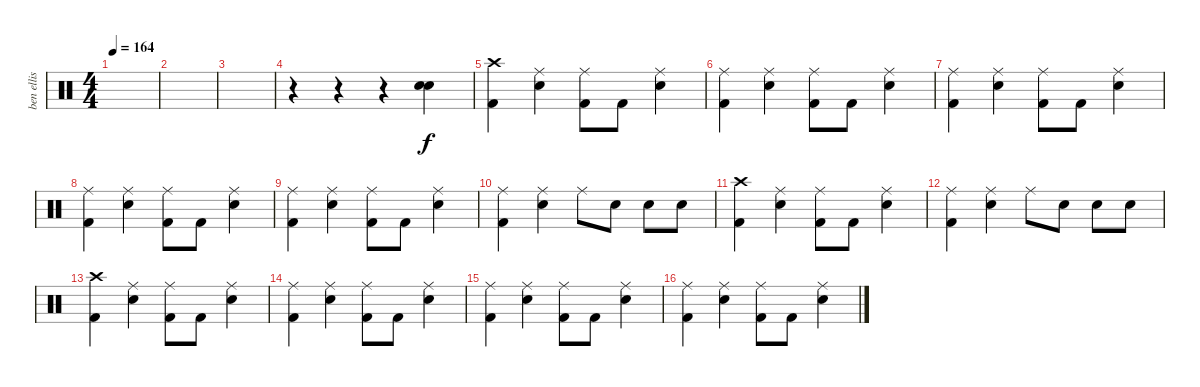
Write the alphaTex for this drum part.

\track ("ben ellis" "ben ellis") {instrument percussion}
\staff {score}
\articulation defaults
\ts (4 4)
\tempo 164
\clef neutral
\ks c
|
|
|
r.4 r.4 r.4 ("Electric Snare (hit)" "Electric Snare (hit)").4 |
("Crash high (hit)" "Kick (hit) 2").4 ("Ride (middle)" "Electric Snare (hit)").4 ("Ride (middle)" "Kick (hit) 2").8 "Kick (hit) 2".8 ("Ride (middle)" "Electric Snare (hit)").4 |
("Ride (middle)" "Kick (hit) 2").4 ("Ride (middle)" "Electric Snare (hit)").4 ("Ride (middle)" "Kick (hit) 2").8 "Kick (hit) 2".8 ("Ride (middle)" "Electric Snare (hit)").4 |
("Ride (middle)" "Kick (hit) 2").4 ("Ride (middle)" "Electric Snare (hit)").4 ("Ride (middle)" "Kick (hit) 2").8 "Kick (hit) 2".8 ("Ride (middle)" "Electric Snare (hit)").4 |
("Ride (middle)" "Kick (hit) 2").4 ("Ride (middle)" "Electric Snare (hit)").4 ("Ride (middle)" "Kick (hit) 2").8 "Kick (hit) 2".8 ("Ride (middle)" "Electric Snare (hit)").4 |
("Ride (middle)" "Kick (hit) 2").4 ("Ride (middle)" "Electric Snare (hit)").4 ("Ride (middle)" "Kick (hit) 2").8 "Kick (hit) 2".8 ("Ride (middle)" "Electric Snare (hit)").4 |
("Ride (middle)" "Kick (hit) 2").4 ("Ride (middle)" "Electric Snare (hit)").4 "Ride (middle)".8 "Electric Snare (hit)".8 "Electric Snare (hit)".8 "Electric Snare (hit)".8 |
("Crash high (hit)" "Kick (hit) 2").4 ("Ride (middle)" "Electric Snare (hit)").4 ("Ride (middle)" "Kick (hit) 2").8 "Kick (hit) 2".8 ("Ride (middle)" "Electric Snare (hit)").4 |
("Ride (middle)" "Kick (hit) 2").4 ("Ride (middle)" "Electric Snare (hit)").4 "Ride (middle)".8 "Electric Snare (hit)".8 "Electric Snare (hit)".8 "Electric Snare (hit)".8 |
("Crash high (hit)" "Kick (hit) 2").4 ("Ride (middle)" "Electric Snare (hit)").4 ("Ride (middle)" "Kick (hit) 2").8 "Kick (hit) 2".8 ("Ride (middle)" "Electric Snare (hit)").4 |
("Ride (middle)" "Kick (hit) 2").4 ("Ride (middle)" "Electric Snare (hit)").4 ("Ride (middle)" "Kick (hit) 2").8 "Kick (hit) 2".8 ("Ride (middle)" "Electric Snare (hit)").4 |
("Ride (middle)" "Kick (hit) 2").4 ("Ride (middle)" "Electric Snare (hit)").4 ("Ride (middle)" "Kick (hit) 2").8 "Kick (hit) 2".8 ("Ride (middle)" "Electric Snare (hit)").4 |
("Ride (middle)" "Kick (hit) 2").4 ("Ride (middle)" "Electric Snare (hit)").4 ("Ride (middle)" "Kick (hit) 2").8 "Kick (hit) 2".8 ("Ride (middle)" "Electric Snare (hit)").4
